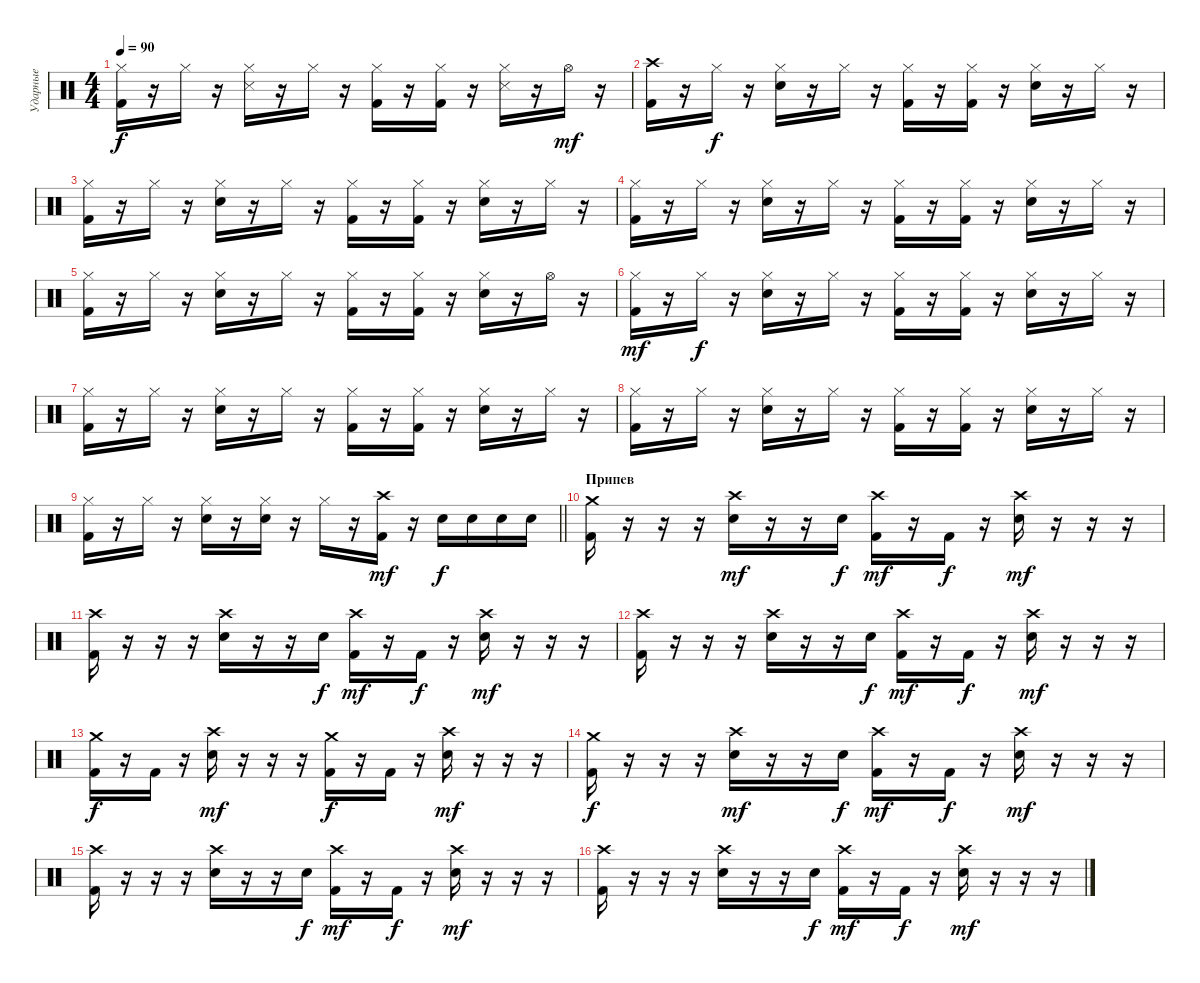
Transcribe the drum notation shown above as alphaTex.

\track ("Ударные" "Ударные") {instrument percussion}
\staff {score}
\articulation defaults
\ts (4 4)
\tempo 90
\clef neutral
\ks c
("Hi-Hat (closed)" "Kick (hit) 2").16{dy f} r.16 "Hi-Hat (closed)".16 r.16 ("Hi-Hat (closed)" "Snare (side stick) 3").16 r.16 "Hi-Hat (closed)".16 r.16 ("Hi-Hat (closed)" "Kick (hit) 2").16 r.16 ("Hi-Hat (closed)" "Kick (hit) 2").16 r.16 ("Hi-Hat (closed)" "Snare (side stick) 3").16 r.16 "Hi-Hat (open)".16{dy mf} r.16 |
("Crash high (hit)" "Kick (hit) 2").16 r.16 "Hi-Hat (closed)".16{dy f} r.16 ("Hi-Hat (closed)" "Electric Snare (hit)").16 r.16 "Hi-Hat (closed)".16 r.16 ("Hi-Hat (closed)" "Kick (hit) 2").16 r.16 ("Hi-Hat (closed)" "Kick (hit) 2").16 r.16 ("Hi-Hat (closed)" "Electric Snare (hit)").16 r.16 "Hi-Hat (closed)".16 r.16 |
("Hi-Hat (closed)" "Kick (hit) 2").16 r.16 "Hi-Hat (closed)".16 r.16 ("Hi-Hat (closed)" "Electric Snare (hit)").16 r.16 "Hi-Hat (closed)".16 r.16 ("Hi-Hat (closed)" "Kick (hit) 2").16 r.16 ("Hi-Hat (closed)" "Kick (hit) 2").16 r.16 ("Hi-Hat (closed)" "Electric Snare (hit)").16 r.16 "Hi-Hat (closed)".16 r.16 |
("Hi-Hat (closed)" "Kick (hit) 2").16 r.16 "Hi-Hat (closed)".16 r.16 ("Hi-Hat (closed)" "Electric Snare (hit)").16 r.16 "Hi-Hat (closed)".16 r.16 ("Hi-Hat (closed)" "Kick (hit) 2").16 r.16 ("Hi-Hat (closed)" "Kick (hit) 2").16 r.16 ("Hi-Hat (closed)" "Electric Snare (hit)").16 r.16 "Hi-Hat (closed)".16 r.16 |
("Hi-Hat (closed)" "Kick (hit) 2").16 r.16 "Hi-Hat (closed)".16 r.16 ("Hi-Hat (closed)" "Electric Snare (hit)").16 r.16 "Hi-Hat (closed)".16 r.16 ("Hi-Hat (closed)" "Kick (hit) 2").16 r.16 ("Hi-Hat (closed)" "Kick (hit) 2").16 r.16 ("Hi-Hat (closed)" "Electric Snare (hit)").16 r.16 "Hi-Hat (open)".16 r.16 |
("Hi-Hat (closed)" "Kick (hit) 2").16{dy mf} r.16 "Hi-Hat (closed)".16{dy f} r.16 ("Hi-Hat (closed)" "Electric Snare (hit)").16 r.16 "Hi-Hat (closed)".16 r.16 ("Hi-Hat (closed)" "Kick (hit) 2").16 r.16 ("Hi-Hat (closed)" "Kick (hit) 2").16 r.16 ("Hi-Hat (closed)" "Electric Snare (hit)").16 r.16 "Hi-Hat (closed)".16 r.16 |
("Hi-Hat (closed)" "Kick (hit) 2").16 r.16 "Hi-Hat (closed)".16 r.16 ("Hi-Hat (closed)" "Electric Snare (hit)").16 r.16 "Hi-Hat (closed)".16 r.16 ("Hi-Hat (closed)" "Kick (hit) 2").16 r.16 ("Hi-Hat (closed)" "Kick (hit) 2").16 r.16 ("Hi-Hat (closed)" "Electric Snare (hit)").16 r.16 "Hi-Hat (closed)".16 r.16 |
("Hi-Hat (closed)" "Kick (hit) 2").16 r.16 "Hi-Hat (closed)".16 r.16 ("Hi-Hat (closed)" "Electric Snare (hit)").16 r.16 "Hi-Hat (closed)".16 r.16 ("Hi-Hat (closed)" "Kick (hit) 2").16 r.16 ("Hi-Hat (closed)" "Kick (hit) 2").16 r.16 ("Hi-Hat (closed)" "Electric Snare (hit)").16 r.16 "Hi-Hat (closed)".16 r.16 |
\barLineRight lightlight
("Hi-Hat (closed)" "Kick (hit) 2").16 r.16 "Hi-Hat (closed)".16 r.16 ("Hi-Hat (closed)" "Electric Snare (hit)").16 r.16 ("Hi-Hat (closed)" "Electric Snare (hit)").16 r.16 "Hi-Hat (closed)".16 r.16 ("Crash high (hit)" "Kick (hit) 2").16{dy mf} r.16 "Electric Snare (hit)".16{dy f} "Electric Snare (hit)".16 "Electric Snare (hit)".16 "Electric Snare (hit)".16 |
\section ("" "Припев")
("Crash medium (hit)" "Kick (hit) 2").16 r.16 r.16 r.16 ("Crash high (hit)" "Electric Snare (hit)").16{dy mf} r.16 r.16 "Electric Snare (hit)".16{dy f} ("Crash high (hit)" "Kick (hit) 2").16{dy mf} r.16 "Kick (hit) 2".16{dy f} r.16 ("Crash high (hit)" "Electric Snare (hit)").16{dy mf} r.16 r.16 r.16 |
("Crash high (hit)" "Kick (hit) 2").16 r.16 r.16 r.16 ("Crash high (hit)" "Electric Snare (hit)").16 r.16 r.16 "Electric Snare (hit)".16{dy f} ("Crash high (hit)" "Kick (hit) 2").16{dy mf} r.16 "Kick (hit) 2".16{dy f} r.16 ("Crash high (hit)" "Electric Snare (hit)").16{dy mf} r.16 r.16 r.16 |
("Crash high (hit)" "Kick (hit) 2").16 r.16 r.16 r.16 ("Crash high (hit)" "Electric Snare (hit)").16 r.16 r.16 "Electric Snare (hit)".16{dy f} ("Crash high (hit)" "Kick (hit) 2").16{dy mf} r.16 "Kick (hit) 2".16{dy f} r.16 ("Crash high (hit)" "Electric Snare (hit)").16{dy mf} r.16 r.16 r.16 |
("Crash medium (hit)" "Kick (hit) 2").16{dy f} r.16 "Kick (hit) 2".16 r.16 ("Crash high (hit)" "Electric Snare (hit)").16{dy mf} r.16 r.16 r.16 ("Crash medium (hit)" "Kick (hit) 2").16{dy f} r.16 "Kick (hit) 2".16 r.16 ("Crash high (hit)" "Electric Snare (hit)").16{dy mf} r.16 r.16 r.16 |
("Crash medium (hit)" "Kick (hit) 2").16{dy f} r.16 r.16 r.16 ("Crash high (hit)" "Electric Snare (hit)").16{dy mf} r.16 r.16 "Electric Snare (hit)".16{dy f} ("Crash high (hit)" "Kick (hit) 2").16{dy mf} r.16 "Kick (hit) 2".16{dy f} r.16 ("Crash high (hit)" "Electric Snare (hit)").16{dy mf} r.16 r.16 r.16 |
("Crash high (hit)" "Kick (hit) 2").16 r.16 r.16 r.16 ("Crash high (hit)" "Electric Snare (hit)").16 r.16 r.16 "Electric Snare (hit)".16{dy f} ("Crash high (hit)" "Kick (hit) 2").16{dy mf} r.16 "Kick (hit) 2".16{dy f} r.16 ("Crash high (hit)" "Electric Snare (hit)").16{dy mf} r.16 r.16 r.16 |
("Crash high (hit)" "Kick (hit) 2").16 r.16 r.16 r.16 ("Crash high (hit)" "Electric Snare (hit)").16 r.16 r.16 "Electric Snare (hit)".16{dy f} ("Crash high (hit)" "Kick (hit) 2").16{dy mf} r.16 "Kick (hit) 2".16{dy f} r.16 ("Crash high (hit)" "Electric Snare (hit)").16{dy mf} r.16 r.16 r.16
